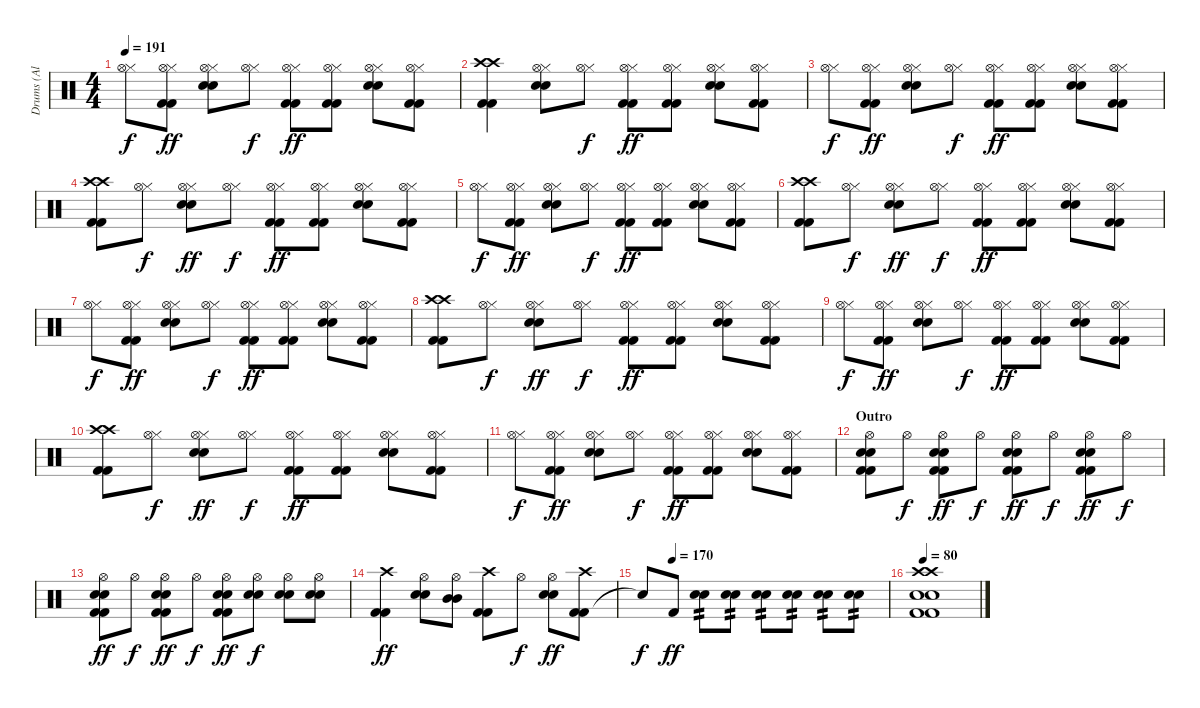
\track ("Drums (Al Sobrante)" "Drums (Al ") {instrument percussion}
\staff {score}
\articulation defaults
\ts (4 4)
\tempo 191
\clef neutral
\ks c
("Hi-Hat (closed)" "Hi-Hat (open)").8{dy f} ("Kick (hit) 2" "Kick (hit) 2" "Hi-Hat (closed)" "Hi-Hat (open)").8{dy ff} ("Electric Snare (hit)" "Electric Snare (hit)" "Hi-Hat (closed)" "Hi-Hat (open)").8 ("Hi-Hat (closed)" "Hi-Hat (open)").8{dy f} ("Kick (hit) 2" "Kick (hit) 2" "Hi-Hat (closed)" "Hi-Hat (open)").8{dy ff} ("Kick (hit) 2" "Kick (hit) 2" "Hi-Hat (closed)" "Hi-Hat (open)").8 ("Electric Snare (hit)" "Electric Snare (hit)" "Hi-Hat (closed)" "Hi-Hat (open)").8 ("Kick (hit) 2" "Kick (hit) 2" "Hi-Hat (closed)" "Hi-Hat (open)").8 |
("Kick (hit) 2" "Kick (hit) 2" "Crash high (hit)" "Crash high (hit)").4 ("Electric Snare (hit)" "Electric Snare (hit)" "Hi-Hat (closed)" "Hi-Hat (open)").8 ("Hi-Hat (closed)" "Hi-Hat (open)").8{dy f} ("Kick (hit) 2" "Kick (hit) 2" "Hi-Hat (closed)" "Hi-Hat (open)").8{dy ff} ("Kick (hit) 2" "Kick (hit) 2" "Hi-Hat (closed)" "Hi-Hat (open)").8 ("Electric Snare (hit)" "Electric Snare (hit)" "Hi-Hat (closed)" "Hi-Hat (open)").8 ("Kick (hit) 2" "Kick (hit) 2" "Hi-Hat (closed)" "Hi-Hat (open)").8 |
("Hi-Hat (closed)" "Hi-Hat (open)").8{dy f} ("Kick (hit) 2" "Kick (hit) 2" "Hi-Hat (closed)" "Hi-Hat (open)").8{dy ff} ("Electric Snare (hit)" "Electric Snare (hit)" "Hi-Hat (closed)" "Hi-Hat (open)").8 ("Hi-Hat (closed)" "Hi-Hat (open)").8{dy f} ("Kick (hit) 2" "Kick (hit) 2" "Hi-Hat (closed)" "Hi-Hat (open)").8{dy ff} ("Kick (hit) 2" "Kick (hit) 2" "Hi-Hat (closed)" "Hi-Hat (open)").8 ("Electric Snare (hit)" "Electric Snare (hit)" "Hi-Hat (closed)" "Hi-Hat (open)").8 ("Kick (hit) 2" "Kick (hit) 2" "Hi-Hat (closed)" "Hi-Hat (open)").8 |
("Kick (hit) 2" "Kick (hit) 2" "Crash high (hit)" "Crash high (hit)").8 ("Hi-Hat (closed)" "Hi-Hat (open)").8{dy f} ("Electric Snare (hit)" "Electric Snare (hit)" "Hi-Hat (closed)" "Hi-Hat (open)").8{dy ff} ("Hi-Hat (closed)" "Hi-Hat (open)").8{dy f} ("Kick (hit) 2" "Kick (hit) 2" "Hi-Hat (closed)" "Hi-Hat (open)").8{dy ff} ("Kick (hit) 2" "Kick (hit) 2" "Hi-Hat (closed)" "Hi-Hat (open)").8 ("Electric Snare (hit)" "Electric Snare (hit)" "Hi-Hat (closed)" "Hi-Hat (open)").8 ("Kick (hit) 2" "Kick (hit) 2" "Hi-Hat (closed)" "Hi-Hat (open)").8 |
("Hi-Hat (closed)" "Hi-Hat (open)").8{dy f} ("Kick (hit) 2" "Kick (hit) 2" "Hi-Hat (closed)" "Hi-Hat (open)").8{dy ff} ("Electric Snare (hit)" "Electric Snare (hit)" "Hi-Hat (closed)" "Hi-Hat (open)").8 ("Hi-Hat (closed)" "Hi-Hat (open)").8{dy f} ("Kick (hit) 2" "Kick (hit) 2" "Hi-Hat (closed)" "Hi-Hat (open)").8{dy ff} ("Kick (hit) 2" "Kick (hit) 2" "Hi-Hat (closed)" "Hi-Hat (open)").8 ("Electric Snare (hit)" "Electric Snare (hit)" "Hi-Hat (closed)" "Hi-Hat (open)").8 ("Kick (hit) 2" "Kick (hit) 2" "Hi-Hat (closed)" "Hi-Hat (open)").8 |
("Kick (hit) 2" "Kick (hit) 2" "Crash high (hit)" "Crash high (hit)").8 ("Hi-Hat (closed)" "Hi-Hat (open)").8{dy f} ("Electric Snare (hit)" "Electric Snare (hit)" "Hi-Hat (closed)" "Hi-Hat (open)").8{dy ff} ("Hi-Hat (closed)" "Hi-Hat (open)").8{dy f} ("Kick (hit) 2" "Kick (hit) 2" "Hi-Hat (closed)" "Hi-Hat (open)").8{dy ff} ("Kick (hit) 2" "Kick (hit) 2" "Hi-Hat (closed)" "Hi-Hat (open)").8 ("Electric Snare (hit)" "Electric Snare (hit)" "Hi-Hat (closed)" "Hi-Hat (open)").8 ("Kick (hit) 2" "Kick (hit) 2" "Hi-Hat (closed)" "Hi-Hat (open)").8 |
("Hi-Hat (closed)" "Hi-Hat (open)").8{dy f} ("Kick (hit) 2" "Kick (hit) 2" "Hi-Hat (closed)" "Hi-Hat (open)").8{dy ff} ("Electric Snare (hit)" "Electric Snare (hit)" "Hi-Hat (closed)" "Hi-Hat (open)").8 ("Hi-Hat (closed)" "Hi-Hat (open)").8{dy f} ("Kick (hit) 2" "Kick (hit) 2" "Hi-Hat (closed)" "Hi-Hat (open)").8{dy ff} ("Kick (hit) 2" "Kick (hit) 2" "Hi-Hat (closed)" "Hi-Hat (open)").8 ("Electric Snare (hit)" "Electric Snare (hit)" "Hi-Hat (closed)" "Hi-Hat (open)").8 ("Kick (hit) 2" "Kick (hit) 2" "Hi-Hat (closed)" "Hi-Hat (open)").8 |
("Kick (hit) 2" "Kick (hit) 2" "Crash high (hit)" "Crash high (hit)").8 ("Hi-Hat (closed)" "Hi-Hat (open)").8{dy f} ("Electric Snare (hit)" "Electric Snare (hit)" "Hi-Hat (closed)" "Hi-Hat (open)").8{dy ff} ("Hi-Hat (closed)" "Hi-Hat (open)").8{dy f} ("Kick (hit) 2" "Kick (hit) 2" "Hi-Hat (closed)" "Hi-Hat (open)").8{dy ff} ("Kick (hit) 2" "Kick (hit) 2" "Hi-Hat (closed)" "Hi-Hat (open)").8 ("Electric Snare (hit)" "Electric Snare (hit)" "Hi-Hat (closed)" "Hi-Hat (open)").8 ("Kick (hit) 2" "Kick (hit) 2" "Hi-Hat (closed)" "Hi-Hat (open)").8 |
("Hi-Hat (closed)" "Hi-Hat (open)").8{dy f} ("Kick (hit) 2" "Kick (hit) 2" "Hi-Hat (closed)" "Hi-Hat (open)").8{dy ff} ("Electric Snare (hit)" "Electric Snare (hit)" "Hi-Hat (closed)" "Hi-Hat (open)").8 ("Hi-Hat (closed)" "Hi-Hat (open)").8{dy f} ("Kick (hit) 2" "Kick (hit) 2" "Hi-Hat (closed)" "Hi-Hat (open)").8{dy ff} ("Kick (hit) 2" "Kick (hit) 2" "Hi-Hat (closed)" "Hi-Hat (open)").8 ("Electric Snare (hit)" "Electric Snare (hit)" "Hi-Hat (closed)" "Hi-Hat (open)").8 ("Kick (hit) 2" "Kick (hit) 2" "Hi-Hat (closed)" "Hi-Hat (open)").8 |
("Kick (hit) 2" "Kick (hit) 2" "Crash high (hit)" "Crash high (hit)").8 ("Hi-Hat (closed)" "Hi-Hat (open)").8{dy f} ("Electric Snare (hit)" "Electric Snare (hit)" "Hi-Hat (closed)" "Hi-Hat (open)").8{dy ff} ("Hi-Hat (closed)" "Hi-Hat (open)").8{dy f} ("Kick (hit) 2" "Kick (hit) 2" "Hi-Hat (closed)" "Hi-Hat (open)").8{dy ff} ("Kick (hit) 2" "Kick (hit) 2" "Hi-Hat (closed)" "Hi-Hat (open)").8 ("Electric Snare (hit)" "Electric Snare (hit)" "Hi-Hat (closed)" "Hi-Hat (open)").8 ("Kick (hit) 2" "Kick (hit) 2" "Hi-Hat (closed)" "Hi-Hat (open)").8 |
("Hi-Hat (closed)" "Hi-Hat (open)").8{dy f} ("Kick (hit) 2" "Kick (hit) 2" "Hi-Hat (closed)" "Hi-Hat (open)").8{dy ff} ("Electric Snare (hit)" "Electric Snare (hit)" "Hi-Hat (closed)" "Hi-Hat (open)").8 ("Hi-Hat (closed)" "Hi-Hat (open)").8{dy f} ("Kick (hit) 2" "Kick (hit) 2" "Hi-Hat (closed)" "Hi-Hat (open)").8{dy ff} ("Kick (hit) 2" "Kick (hit) 2" "Hi-Hat (closed)" "Hi-Hat (open)").8 ("Electric Snare (hit)" "Electric Snare (hit)" "Hi-Hat (closed)" "Hi-Hat (open)").8 ("Kick (hit) 2" "Kick (hit) 2" "Hi-Hat (closed)" "Hi-Hat (open)").8 |
\section ("" "Outro")
("Kick (hit) 2" "Kick (hit) 2" "Electric Snare (hit)" "Electric Snare (hit)" "Hi-Hat (open)").8 "Hi-Hat (open)".8{dy f} ("Kick (hit) 2" "Kick (hit) 2" "Electric Snare (hit)" "Electric Snare (hit)" "Hi-Hat (open)").8{dy ff} "Hi-Hat (open)".8{dy f} ("Kick (hit) 2" "Kick (hit) 2" "Electric Snare (hit)" "Electric Snare (hit)" "Hi-Hat (open)").8{dy ff} "Hi-Hat (open)".8{dy f} ("Kick (hit) 2" "Kick (hit) 2" "Electric Snare (hit)" "Electric Snare (hit)" "Hi-Hat (open)").8{dy ff} "Hi-Hat (open)".8{dy f} |
("Kick (hit) 2" "Kick (hit) 2" "Electric Snare (hit)" "Electric Snare (hit)" "Hi-Hat (open)").8{dy ff} "Hi-Hat (open)".8{dy f} ("Kick (hit) 2" "Kick (hit) 2" "Electric Snare (hit)" "Electric Snare (hit)" "Hi-Hat (open)").8{dy ff} "Hi-Hat (open)".8{dy f} ("Kick (hit) 2" "Kick (hit) 2" "Electric Snare (hit)" "Electric Snare (hit)" "Hi-Hat (open)").8{dy ff} ("Electric Snare (hit)" "Electric Snare (hit)" "Hi-Hat (open)").8{dy f} ("Electric Snare (hit)" "Electric Snare (hit)" "Hi-Hat (open)").8 ("Electric Snare (hit)" "Electric Snare (hit)" "Hi-Hat (open)").8 |
("Kick (hit) 2" "Kick (hit) 2" "Crash high (hit)").4{dy ff} ("Electric Snare (hit)" "Electric Snare (hit)" "Hi-Hat (open)").8 ("Mid Tom (hit)" "Mid Tom (hit)" "Hi-Hat (open)").8 ("Kick (hit) 2" "Kick (hit) 2" "Crash high (hit)").8 "Hi-Hat (open)".8{dy f} ("Electric Snare (hit)" "Electric Snare (hit)" "Hi-Hat (open)").8{dy ff} ("Kick (hit) 2" "Kick (hit) 2" "Crash high (hit)").8 |
\tempo (170 0.125)
"Snare (hit)"{t}.8{dy f} "Kick (hit) 2".8{dy ff} ("Snare (hit) 2" "Snare (hit) 2").8{tp 2} ("Snare (hit) 2" "Snare (hit) 2").8{tp 2} ("Snare (hit) 2" "Snare (hit) 2").8{tp 2} ("Snare (hit) 2" "Snare (hit) 2").8{tp 2} ("Snare (hit) 2" "Snare (hit) 2").8{tp 2} ("Snare (hit) 2" "Snare (hit) 2").8{tp 2} |
\tempo 80
("Kick (hit) 2" "Kick (hit) 2" "Electric Snare (hit)" "Electric Snare (hit)" "Crash high (hit)" "Crash high (hit)").1
